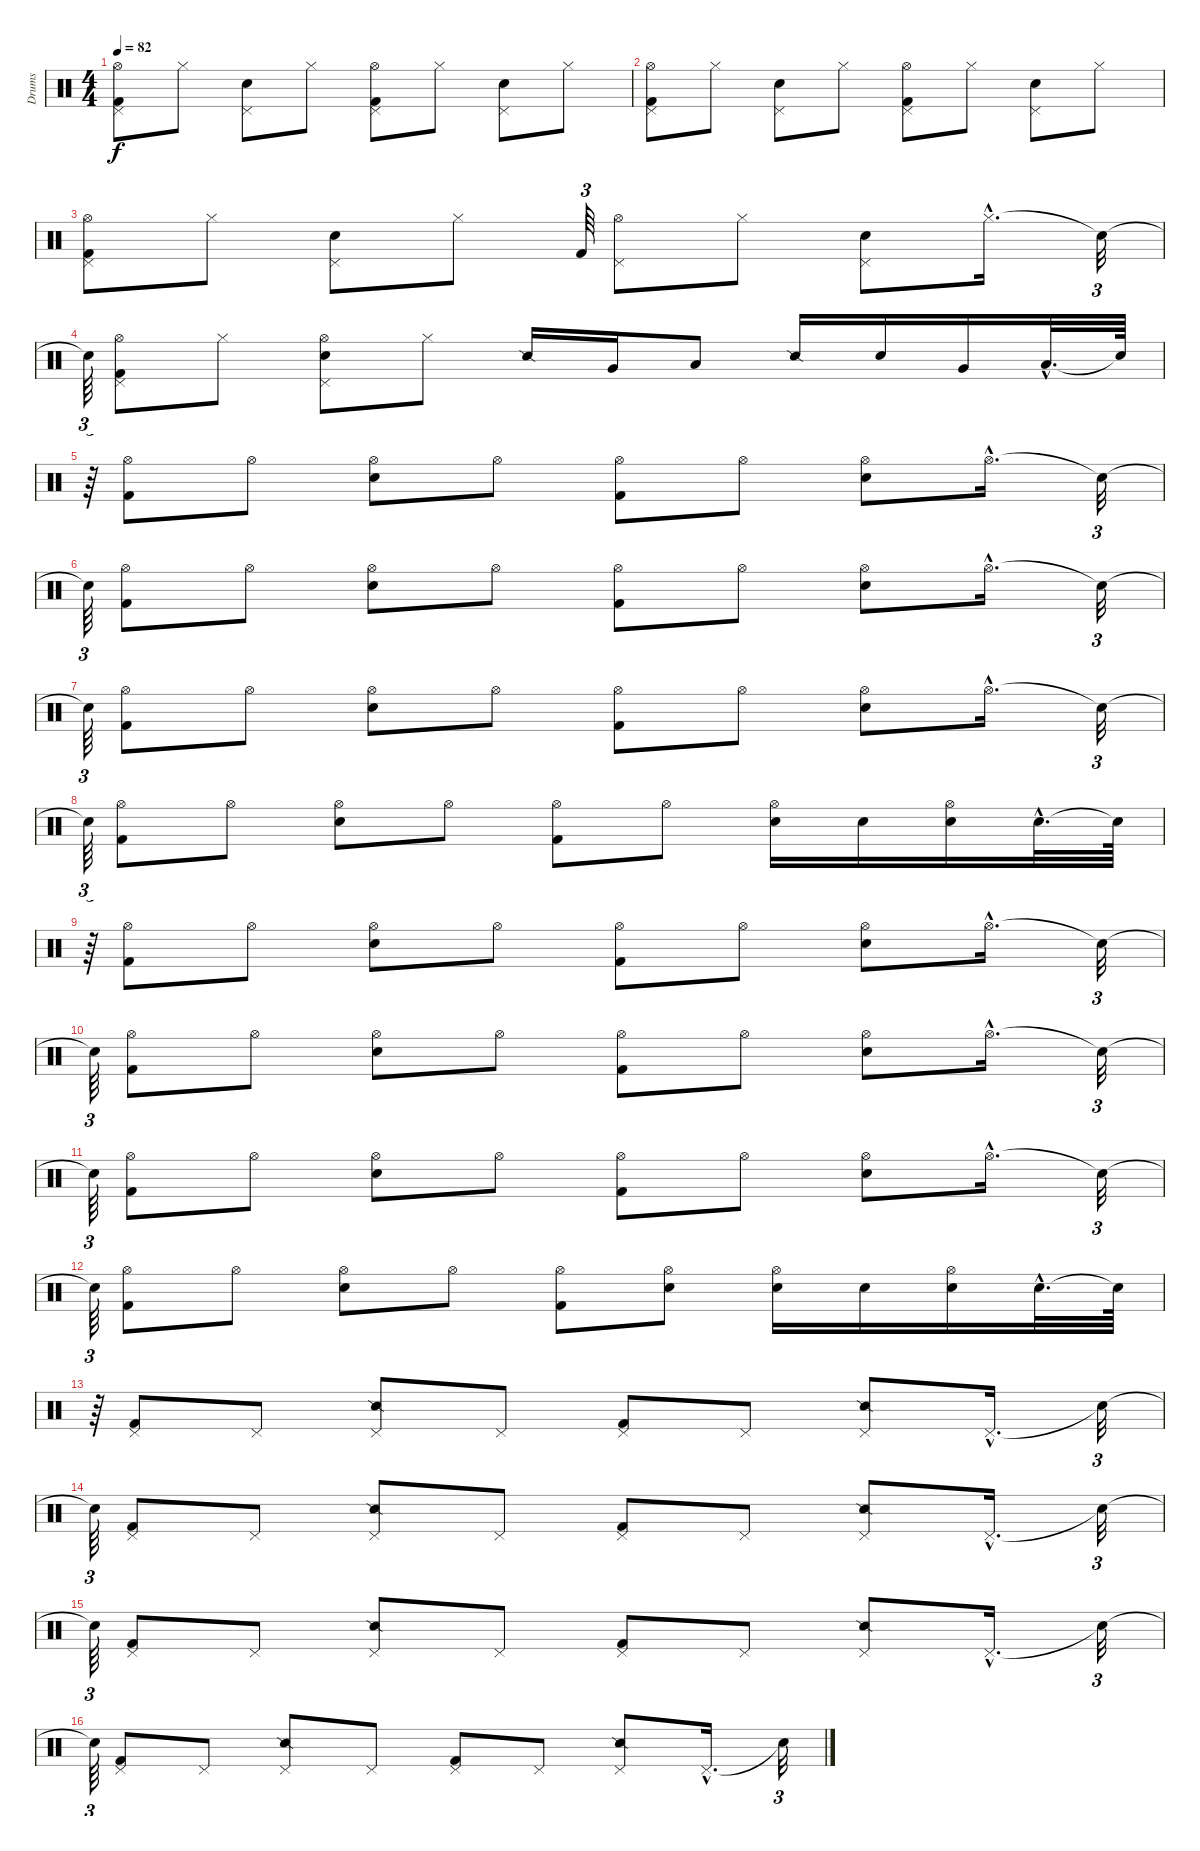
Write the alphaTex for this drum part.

\track ("Drums" "Drums") {instrument percussion}
\staff {score}
\articulation defaults
\ts (4 4)
\tempo 82
\clef neutral
\ks c
("Hi-Hat (open)" "Pedal Hi-Hat (hit)" "Kick (hit) 2").8{dy f} "Hi-Hat (closed)".8 ("Pedal Hi-Hat (hit)" "Snare (hit) 2").8 "Hi-Hat (closed)".8 ("Kick (hit) 2" "Hi-Hat (open)" "Pedal Hi-Hat (hit)").8 "Hi-Hat (closed)".8 ("Pedal Hi-Hat (hit)" "Snare (hit) 2").8 "Hi-Hat (closed)".8 |
("Hi-Hat (open)" "Pedal Hi-Hat (hit)" "Kick (hit) 2").8 "Hi-Hat (closed)".8 ("Pedal Hi-Hat (hit)" "Snare (hit) 2").8 "Hi-Hat (closed)".8 ("Kick (hit) 2" "Hi-Hat (open)" "Pedal Hi-Hat (hit)").8 "Hi-Hat (closed)".8 ("Pedal Hi-Hat (hit)" "Snare (hit) 2").8 "Hi-Hat (closed)".8 |
("Hi-Hat (open)" "Pedal Hi-Hat (hit)" "Kick (hit) 2").8 "Hi-Hat (closed)".8 ("Pedal Hi-Hat (hit)" "Snare (hit) 2").8 "Hi-Hat (closed)".8 "Kick (hit) 2".64{tu (3 2)} ("Hi-Hat (open)" "Pedal Hi-Hat (hit)").8 "Hi-Hat (closed)".8 ("Pedal Hi-Hat (hit)" "Snare (hit) 2").8 "Hi-Hat (closed)"{hac}.16{d} "Snare (hit)"{t}.32{tu (3 2)} |
"Snare (hit)"{t}.64{tu (3 2)} ("Hi-Hat (open)" "Pedal Hi-Hat (hit)" "Kick (hit) 2").8 "Hi-Hat (closed)".8 ("Hi-Hat (open)" "Pedal Hi-Hat (hit)" "Electric Snare (hit)").8 "Hi-Hat (closed)".8 "Snare (side stick) 2".16 "Very Low Tom (hit)".16 "Low Floor Tom (hit)".8 "Snare (side stick) 2".16 "Snare (hit) 2".16 "Very Low Tom (hit)".16 "Low Floor Tom (hit)"{hac}.32{d} "Snare (hit)"{t}.64 |
r.64{tu (3 2)} ("Hi-Hat (open)" "Kick (hit) 2").8{volume 16 balance 8} "Hi-Hat (open)".8 ("Hi-Hat (open)" "Electric Snare (hit)").8 "Hi-Hat (open)".8 ("Hi-Hat (open)" "Kick (hit) 2").8 "Hi-Hat (open)".8 ("Hi-Hat (open)" "Electric Snare (hit)").8 "Hi-Hat (open)"{hac}.16{d} "Snare (hit)"{t}.32{tu (3 2)} |
"Snare (hit)"{t}.64{tu (3 2)} ("Hi-Hat (open)" "Kick (hit) 2").8 "Hi-Hat (open)".8 ("Hi-Hat (open)" "Electric Snare (hit)").8 "Hi-Hat (open)".8 ("Hi-Hat (open)" "Kick (hit) 2").8 "Hi-Hat (open)".8 ("Hi-Hat (open)" "Electric Snare (hit)").8 "Hi-Hat (open)"{hac}.16{d} "Snare (hit)"{t}.32{tu (3 2)} |
"Snare (hit)"{t}.64{tu (3 2)} ("Hi-Hat (open)" "Kick (hit) 2").8 "Hi-Hat (open)".8 ("Hi-Hat (open)" "Electric Snare (hit)").8 "Hi-Hat (open)".8 ("Hi-Hat (open)" "Kick (hit) 2").8 "Hi-Hat (open)".8 ("Hi-Hat (open)" "Electric Snare (hit)").8 "Hi-Hat (open)"{hac}.16{d} "Snare (hit)"{t}.32{tu (3 2)} |
"Snare (hit)"{t}.64{tu (3 2)} ("Hi-Hat (open)" "Kick (hit) 2").8 "Hi-Hat (open)".8 ("Electric Snare (hit)" "Hi-Hat (open)").8 "Hi-Hat (open)".8 ("Hi-Hat (open)" "Kick (hit) 2").8 "Hi-Hat (open)".8 ("Electric Snare (hit)" "Hi-Hat (open)").16 "Electric Snare (hit)".16 ("Electric Snare (hit)" "Hi-Hat (open)").16 "Electric Snare (hit)"{hac}.32{d} "Snare (hit)"{t}.64 |
r.64{tu (3 2)} ("Hi-Hat (open)" "Kick (hit) 2").8 "Hi-Hat (open)".8 ("Hi-Hat (open)" "Electric Snare (hit)").8 "Hi-Hat (open)".8 ("Hi-Hat (open)" "Kick (hit) 2").8 "Hi-Hat (open)".8 ("Hi-Hat (open)" "Electric Snare (hit)").8 "Hi-Hat (open)"{hac}.16{d} "Snare (hit)"{t}.32{tu (3 2)} |
"Snare (hit)"{t}.64{tu (3 2)} ("Hi-Hat (open)" "Kick (hit) 2").8 "Hi-Hat (open)".8 ("Hi-Hat (open)" "Electric Snare (hit)").8 "Hi-Hat (open)".8 ("Hi-Hat (open)" "Kick (hit) 2").8 "Hi-Hat (open)".8 ("Hi-Hat (open)" "Electric Snare (hit)").8 "Hi-Hat (open)"{hac}.16{d} "Snare (hit)"{t}.32{tu (3 2)} |
"Snare (hit)"{t}.64{tu (3 2)} ("Hi-Hat (open)" "Kick (hit) 2").8 "Hi-Hat (open)".8 ("Hi-Hat (open)" "Electric Snare (hit)").8 "Hi-Hat (open)".8 ("Hi-Hat (open)" "Kick (hit) 2").8 "Hi-Hat (open)".8 ("Hi-Hat (open)" "Electric Snare (hit)").8 "Hi-Hat (open)"{hac}.16{d} "Snare (hit)"{t}.32{tu (3 2)} |
"Snare (hit)"{t}.64{tu (3 2)} ("Hi-Hat (open)" "Kick (hit) 2").8 "Hi-Hat (open)".8 ("Hi-Hat (open)" "Electric Snare (hit)").8 "Hi-Hat (open)".8 ("Hi-Hat (open)" "Kick (hit) 2").8 ("Hi-Hat (open)" "Electric Snare (hit)").8 ("Hi-Hat (open)" "Electric Snare (hit)").16 "Electric Snare (hit)".16 ("Hi-Hat (open)" "Electric Snare (hit)").16 "Electric Snare (hit)"{hac}.32{d} "Snare (hit)"{t}.64 |
r.64{tu (3 2)} ("Pedal Hi-Hat (hit)" "Kick (hit) 2").8 "Pedal Hi-Hat (hit)".8 ("Pedal Hi-Hat (hit)" "Snare (side stick) 2").8 "Pedal Hi-Hat (hit)".8 ("Pedal Hi-Hat (hit)" "Kick (hit) 2").8 "Pedal Hi-Hat (hit)".8 ("Pedal Hi-Hat (hit)" "Snare (side stick) 2").8 "Pedal Hi-Hat (hit)"{hac}.16{d} "Snare (hit)"{t}.32{tu (3 2)} |
"Snare (hit)"{t}.64{tu (3 2)} ("Pedal Hi-Hat (hit)" "Kick (hit) 2").8 "Pedal Hi-Hat (hit)".8 ("Pedal Hi-Hat (hit)" "Snare (side stick) 2").8 "Pedal Hi-Hat (hit)".8 ("Pedal Hi-Hat (hit)" "Kick (hit) 2").8 "Pedal Hi-Hat (hit)".8 ("Pedal Hi-Hat (hit)" "Snare (side stick) 2").8 "Pedal Hi-Hat (hit)"{hac}.16{d} "Snare (hit)"{t}.32{tu (3 2)} |
"Snare (hit)"{t}.64{tu (3 2)} ("Pedal Hi-Hat (hit)" "Kick (hit) 2").8 "Pedal Hi-Hat (hit)".8 ("Pedal Hi-Hat (hit)" "Snare (side stick) 2").8 "Pedal Hi-Hat (hit)".8 ("Pedal Hi-Hat (hit)" "Kick (hit) 2").8 "Pedal Hi-Hat (hit)".8 ("Pedal Hi-Hat (hit)" "Snare (side stick) 2").8 "Pedal Hi-Hat (hit)"{hac}.16{d} "Snare (hit)"{t}.32{tu (3 2)} |
"Snare (hit)"{t}.64{tu (3 2)} ("Pedal Hi-Hat (hit)" "Kick (hit) 2").8 "Pedal Hi-Hat (hit)".8 ("Pedal Hi-Hat (hit)" "Snare (side stick) 2").8 "Pedal Hi-Hat (hit)".8 ("Pedal Hi-Hat (hit)" "Kick (hit) 2").8 "Pedal Hi-Hat (hit)".8 ("Pedal Hi-Hat (hit)" "Snare (side stick) 2").8 "Pedal Hi-Hat (hit)"{hac}.16{d} "Snare (hit)"{t}.32{tu (3 2)}
